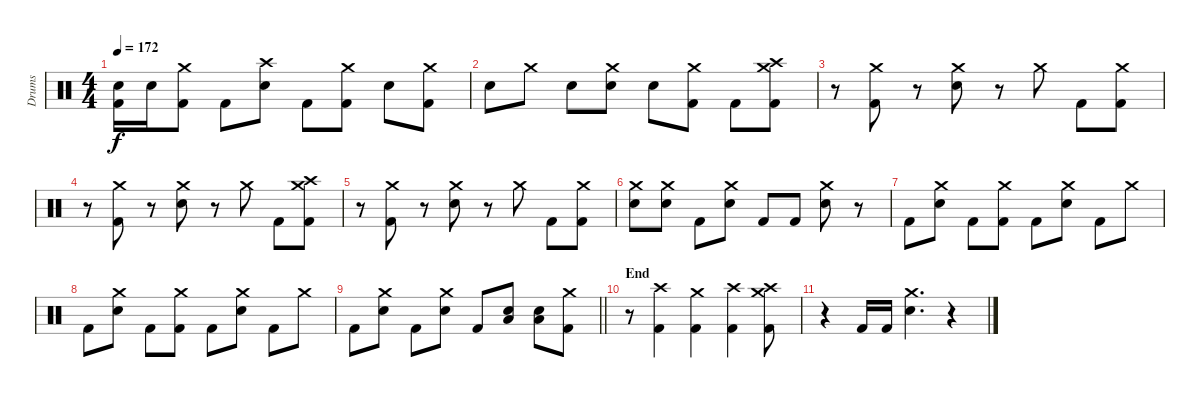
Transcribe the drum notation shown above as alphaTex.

\track ("Drums" "Drums") {instrument percussion}
\staff {score}
\articulation defaults
\ts (4 4)
\tempo 172
\clef neutral
\ks c
("Electric Snare (hit)" "Kick (hit) 2").16{dy f} "Electric Snare (hit)".16 ("Crash medium (hit)" "Kick (hit) 2").8 "Kick (hit) 2".8 ("Crash high (hit)" "Electric Snare (hit)").8 "Kick (hit) 2".8 ("Crash medium (hit)" "Kick (hit) 2").8 "Electric Snare (hit)".8 ("Crash medium (hit)" "Kick (hit) 2").8 |
"Electric Snare (hit)".8 "Crash medium (hit)".8 "Electric Snare (hit)".8 ("Crash medium (hit)" "Electric Snare (hit)").8 "Electric Snare (hit)".8 ("Crash medium (hit)" "Kick (hit) 2").8 "Kick (hit) 2".8 ("Crash high (hit)" "Crash medium (hit)" "Kick (hit) 2").8 |
r.8 ("Crash medium (hit)" "Kick (hit) 2").8 r.8 ("Crash medium (hit)" "Electric Snare (hit)").8 r.8 "Crash medium (hit)".8 "Kick (hit) 2".8 ("Crash medium (hit)" "Kick (hit) 2").8 |
r.8 ("Crash medium (hit)" "Kick (hit) 2").8 r.8 ("Crash medium (hit)" "Electric Snare (hit)").8 r.8 "Crash medium (hit)".8 "Kick (hit) 2".8 ("Crash high (hit)" "Crash medium (hit)" "Kick (hit) 2").8 |
r.8 ("Crash medium (hit)" "Kick (hit) 2").8 r.8 ("Crash medium (hit)" "Electric Snare (hit)").8 r.8 "Crash medium (hit)".8 "Kick (hit) 2".8 ("Crash medium (hit)" "Kick (hit) 2").8 |
("Crash medium (hit)" "Electric Snare (hit)").8 ("Crash medium (hit)" "Electric Snare (hit)").8 "Kick (hit) 2".8 ("Crash medium (hit)" "Electric Snare (hit)").8 "Kick (hit) 2".8 "Kick (hit) 2".8 ("Crash medium (hit)" "Electric Snare (hit)").8 r.8 |
"Kick (hit) 2".8 ("Crash medium (hit)" "Electric Snare (hit)").8 "Kick (hit) 2".8 ("Crash medium (hit)" "Kick (hit) 2").8 "Kick (hit) 2".8 ("Crash medium (hit)" "Electric Snare (hit)").8 "Kick (hit) 2".8 "Crash medium (hit)".8 |
"Kick (hit) 2".8 ("Crash medium (hit)" "Electric Snare (hit)").8 "Kick (hit) 2".8 ("Crash medium (hit)" "Kick (hit) 2").8 "Kick (hit) 2".8 ("Crash medium (hit)" "Electric Snare (hit)").8 "Kick (hit) 2".8 "Crash medium (hit)".8 |
\barLineRight lightlight "Kick (hit) 2".8
("Crash medium (hit)" "Electric Snare (hit)").8 "Kick (hit) 2".8 ("Crash medium (hit)" "Electric Snare (hit)").8 "Kick (hit) 2".8 ("Low Floor Tom (hit)" "Electric Snare (hit)").8 ("Low Floor Tom (hit)" "Electric Snare (hit)").8 ("Crash medium (hit)" "Kick (hit) 2").8 |
\section ("" "End")
r.8 ("Crash high (hit)" "Kick (hit) 2").4 ("Crash medium (hit)" "Kick (hit) 2").4 ("Crash high (hit)" "Kick (hit) 2").4 ("Crash high (hit)" "Crash medium (hit)" "Kick (hit) 2").8 |
r.4 "Kick (hit) 2".16 "Kick (hit) 2".16 ("Crash medium (hit)" "Electric Snare (hit)").4{d} r.4
